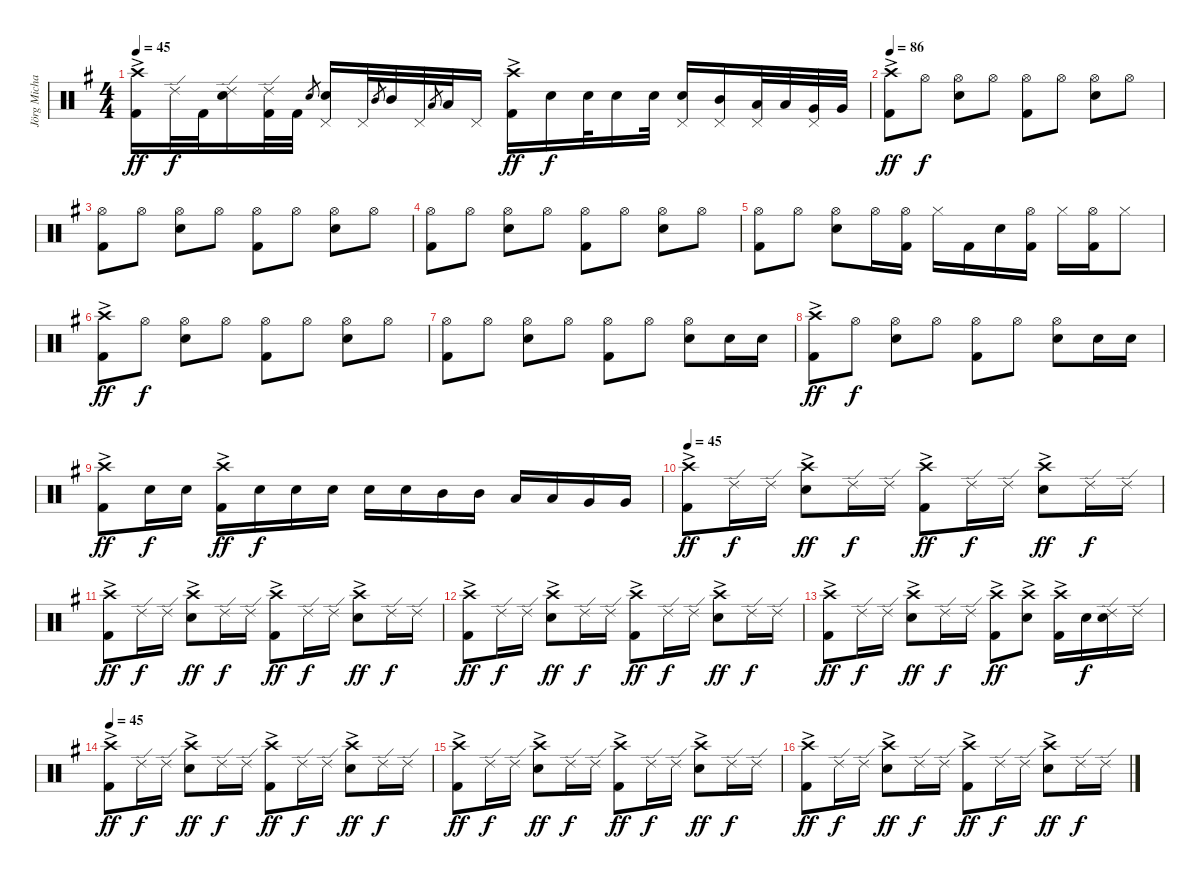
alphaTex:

\track ("Jörg Michael" "Jörg Micha") {instrument percussion}
\staff {score}
\articulation defaults
\ts (4 4)
\tempo 45
\clef neutral
\ks g
("Crash high (hit)"{ac} "Kick (hit) 2"{ac}).16{dy ff} "Ride (edge) 2".32{dy f} "Kick (hit) 2".32 ("Ride (edge) 2" "Electric Snare (hit)").16 ("Ride (edge) 2" "Kick (hit) 2").32 "Kick (hit) 2".32 "Electric Snare (hit)".8{gr} ("Electric Snare (hit)" "Pedal Hi-Hat (hit)").16 "Pedal Hi-Hat (hit)".32 "Mid Tom (hit)".8{gr} "Mid Tom (hit)".32 "Pedal Hi-Hat (hit)".32 "Low Tom (hit)".8{gr} "Low Tom (hit)".32 "Pedal Hi-Hat (hit)".16 ("Crash high (hit)"{ac} "Kick (hit) 2"{ac}).16{dy ff} "Electric Snare (hit)".16{dy f} "Electric Snare (hit)".32 "Electric Snare (hit)".16 "Electric Snare (hit)".32 ("Electric Snare (hit)" "Pedal Hi-Hat (hit)").16 ("Mid Tom (hit)" "Pedal Hi-Hat (hit)").16 ("Low Tom (hit)" "Pedal Hi-Hat (hit)").32 "Low Tom (hit)".32 ("Very Low Tom (hit)" "Pedal Hi-Hat (hit)").32 "Very Low Tom (hit)".32 |
\tempo 86
("Crash high (hit)"{ac} "Kick (hit) 2"{ac}).8{dy ff} "Hi-Hat (open)".8{dy f} ("Hi-Hat (open)" "Electric Snare (hit)").8 "Hi-Hat (open)".8 ("Hi-Hat (open)" "Kick (hit) 2").8 "Hi-Hat (open)".8 ("Hi-Hat (open)" "Electric Snare (hit)").8 "Hi-Hat (open)".8 |
("Hi-Hat (open)" "Kick (hit) 2").8 "Hi-Hat (open)".8 ("Hi-Hat (open)" "Electric Snare (hit)").8 "Hi-Hat (open)".8 ("Hi-Hat (open)" "Kick (hit) 2").8 "Hi-Hat (open)".8 ("Hi-Hat (open)" "Electric Snare (hit)").8 "Hi-Hat (open)".8 |
("Hi-Hat (open)" "Kick (hit) 2").8 "Hi-Hat (open)".8 ("Hi-Hat (open)" "Electric Snare (hit)").8 "Hi-Hat (open)".8 ("Hi-Hat (open)" "Kick (hit) 2").8 "Hi-Hat (open)".8 ("Hi-Hat (open)" "Electric Snare (hit)").8 "Hi-Hat (open)".8 |
("Hi-Hat (open)" "Kick (hit) 2").8 "Hi-Hat (open)".8 ("Hi-Hat (open)" "Electric Snare (hit)").8 "Hi-Hat (open)".16 ("Hi-Hat (open)" "Kick (hit) 2").16 "Hi-Hat (closed)".16 "Kick (hit) 2".16 "Electric Snare (hit)".16 ("Hi-Hat (open)" "Kick (hit) 2").16 "Hi-Hat (closed)".16 ("Hi-Hat (open)" "Kick (hit) 2").16 "Hi-Hat (closed)".8 |
("Crash high (hit)"{ac} "Kick (hit) 2"{ac}).8{dy ff} "Hi-Hat (open)".8{dy f} ("Hi-Hat (open)" "Electric Snare (hit)").8 "Hi-Hat (open)".8 ("Hi-Hat (open)" "Kick (hit) 2").8 "Hi-Hat (open)".8 ("Hi-Hat (open)" "Electric Snare (hit)").8 "Hi-Hat (open)".8 |
("Hi-Hat (open)" "Kick (hit) 2").8 "Hi-Hat (open)".8 ("Hi-Hat (open)" "Electric Snare (hit)").8 "Hi-Hat (open)".8 ("Hi-Hat (open)" "Kick (hit) 2").8 "Hi-Hat (open)".8 ("Hi-Hat (open)" "Electric Snare (hit)").8 "Electric Snare (hit)".16 "Electric Snare (hit)".16 |
("Crash high (hit)"{ac} "Kick (hit) 2"{ac}).8{dy ff} "Hi-Hat (open)".8{dy f} ("Hi-Hat (open)" "Electric Snare (hit)").8 "Hi-Hat (open)".8 ("Hi-Hat (open)" "Kick (hit) 2").8 "Hi-Hat (open)".8 ("Hi-Hat (open)" "Electric Snare (hit)").8 "Electric Snare (hit)".16 "Electric Snare (hit)".16 |
("Crash high (hit)"{ac} "Kick (hit) 2"{ac}).8{dy ff} "Electric Snare (hit)".16{dy f} "Electric Snare (hit)".16 ("Crash high (hit)"{ac} "Kick (hit) 2"{ac}).16{dy ff} "Electric Snare (hit)".16{dy f} "Electric Snare (hit)".16 "Electric Snare (hit)".16 "Electric Snare (hit)".16 "Electric Snare (hit)".16 "Mid Tom (hit)".16 "Mid Tom (hit)".16 "Low Tom (hit)".16 "Low Tom (hit)".16 "Very Low Tom (hit)".16 "Very Low Tom (hit)".16 |
\tempo 45
("Crash high (hit)"{ac} "Kick (hit) 2"{ac}).8{dy ff} "Ride (edge) 2".16{dy f} "Ride (edge) 2".16 ("Electric Snare (hit)" "Crash high (hit)"{ac}).8{dy ff} "Ride (edge) 2".16{dy f} "Ride (edge) 2".16 ("Crash high (hit)"{ac} "Kick (hit) 2"{ac}).8{dy ff} "Ride (edge) 2".16{dy f} "Ride (edge) 2".16 ("Crash high (hit)"{ac} "Electric Snare (hit)"{ac}).8{dy ff} "Ride (edge) 2".16{dy f} "Ride (edge) 2".16 |
("Crash high (hit)"{ac} "Kick (hit) 2"{ac}).8{dy ff} "Ride (edge) 2".16{dy f} "Ride (edge) 2".16 ("Electric Snare (hit)" "Crash high (hit)"{ac}).8{dy ff} "Ride (edge) 2".16{dy f} "Ride (edge) 2".16 ("Crash high (hit)"{ac} "Kick (hit) 2"{ac}).8{dy ff} "Ride (edge) 2".16{dy f} "Ride (edge) 2".16 ("Crash high (hit)"{ac} "Electric Snare (hit)"{ac}).8{dy ff} "Ride (edge) 2".16{dy f} "Ride (edge) 2".16 |
("Crash high (hit)"{ac} "Kick (hit) 2"{ac}).8{dy ff} "Ride (edge) 2".16{dy f} "Ride (edge) 2".16 ("Electric Snare (hit)" "Crash high (hit)"{ac}).8{dy ff} "Ride (edge) 2".16{dy f} "Ride (edge) 2".16 ("Crash high (hit)"{ac} "Kick (hit) 2"{ac}).8{dy ff} "Ride (edge) 2".16{dy f} "Ride (edge) 2".16 ("Crash high (hit)"{ac} "Electric Snare (hit)"{ac}).8{dy ff} "Ride (edge) 2".16{dy f} "Ride (edge) 2".16 |
("Crash high (hit)"{ac} "Kick (hit) 2"{ac}).8{dy ff} "Ride (edge) 2".16{dy f} "Ride (edge) 2".16 ("Electric Snare (hit)" "Crash high (hit)"{ac}).8{dy ff} "Ride (edge) 2".16{dy f} "Ride (edge) 2".16 ("Crash high (hit)"{ac} "Kick (hit) 2"{ac}).8{dy ff} ("Crash high (hit)"{ac} "Electric Snare (hit)").8 ("Crash high (hit)"{ac} "Kick (hit) 2"{ac}).16 "Electric Snare (hit)".16{dy f} ("Ride (edge) 2" "Electric Snare (hit)").16 "Ride (edge) 2".16 |
\tempo 45
("Crash high (hit)"{ac} "Kick (hit) 2"{ac}).8{dy ff} "Ride (edge) 2".16{dy f} "Ride (edge) 2".16 ("Electric Snare (hit)" "Crash high (hit)"{ac}).8{dy ff} "Ride (edge) 2".16{dy f} "Ride (edge) 2".16 ("Crash high (hit)"{ac} "Kick (hit) 2"{ac}).8{dy ff} "Ride (edge) 2".16{dy f} "Ride (edge) 2".16 ("Crash high (hit)"{ac} "Electric Snare (hit)"{ac}).8{dy ff} "Ride (edge) 2".16{dy f} "Ride (edge) 2".16 |
("Crash high (hit)"{ac} "Kick (hit) 2"{ac}).8{dy ff} "Ride (edge) 2".16{dy f} "Ride (edge) 2".16 ("Electric Snare (hit)" "Crash high (hit)"{ac}).8{dy ff} "Ride (edge) 2".16{dy f} "Ride (edge) 2".16 ("Crash high (hit)"{ac} "Kick (hit) 2"{ac}).8{dy ff} "Ride (edge) 2".16{dy f} "Ride (edge) 2".16 ("Crash high (hit)"{ac} "Electric Snare (hit)"{ac}).8{dy ff} "Ride (edge) 2".16{dy f} "Ride (edge) 2".16 |
("Crash high (hit)"{ac} "Kick (hit) 2"{ac}).8{dy ff} "Ride (edge) 2".16{dy f} "Ride (edge) 2".16 ("Electric Snare (hit)" "Crash high (hit)"{ac}).8{dy ff} "Ride (edge) 2".16{dy f} "Ride (edge) 2".16 ("Crash high (hit)"{ac} "Kick (hit) 2"{ac}).8{dy ff} "Ride (edge) 2".16{dy f} "Ride (edge) 2".16 ("Crash high (hit)"{ac} "Electric Snare (hit)"{ac}).8{dy ff} "Ride (edge) 2".16{dy f} "Ride (edge) 2".16
